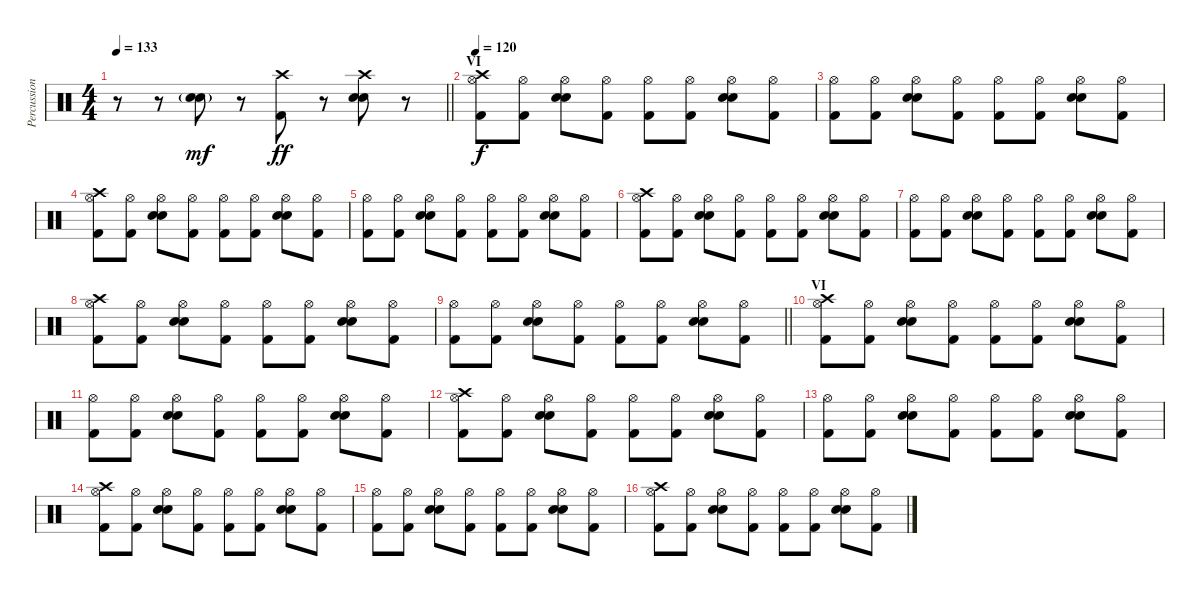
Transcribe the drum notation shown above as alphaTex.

\track ("Percussion" "Percussion") {instrument percussion}
\staff {score}
\articulation defaults
\ts (4 4)
\tempo 133
\clef neutral
\barLineRight lightlight
\ks c
r.8{dy ff} r.8 ("Electric Snare (hit)" "Snare (hit) 2"{g}).8{dy mf} r.8 ("Crash high (hit)" "Kick (hit) 2").8{dy ff} r.8 ("Crash high (hit)" "Electric Snare (hit)" "Snare (hit) 2").8 r.8 |
\section ("" "VI")
\tempo 120
("Crash high (hit)" "Kick (hit) 2" "Hi-Hat (open)").8{dy f} ("Kick (hit) 2" "Hi-Hat (open)").8 ("Electric Snare (hit)" "Snare (hit) 2" "Hi-Hat (open)").8 ("Kick (hit) 2" "Hi-Hat (open)").8 ("Kick (hit) 2" "Hi-Hat (open)").8 ("Kick (hit) 2" "Hi-Hat (open)").8 ("Electric Snare (hit)" "Snare (hit) 2" "Hi-Hat (open)").8 ("Kick (hit) 2" "Hi-Hat (open)").8 |
("Kick (hit) 2" "Hi-Hat (open)").8 ("Kick (hit) 2" "Hi-Hat (open)").8 ("Electric Snare (hit)" "Snare (hit) 2" "Hi-Hat (open)").8 ("Kick (hit) 2" "Hi-Hat (open)").8 ("Kick (hit) 2" "Hi-Hat (open)").8 ("Kick (hit) 2" "Hi-Hat (open)").8 ("Electric Snare (hit)" "Snare (hit) 2" "Hi-Hat (open)").8 ("Kick (hit) 2" "Hi-Hat (open)").8 |
("Crash high (hit)" "Kick (hit) 2" "Hi-Hat (open)").8 ("Kick (hit) 2" "Hi-Hat (open)").8 ("Electric Snare (hit)" "Snare (hit) 2" "Hi-Hat (open)").8 ("Kick (hit) 2" "Hi-Hat (open)").8 ("Kick (hit) 2" "Hi-Hat (open)").8 ("Kick (hit) 2" "Hi-Hat (open)").8 ("Electric Snare (hit)" "Snare (hit) 2" "Hi-Hat (open)").8 ("Kick (hit) 2" "Hi-Hat (open)").8 |
("Kick (hit) 2" "Hi-Hat (open)").8 ("Kick (hit) 2" "Hi-Hat (open)").8 ("Electric Snare (hit)" "Snare (hit) 2" "Hi-Hat (open)").8 ("Kick (hit) 2" "Hi-Hat (open)").8 ("Kick (hit) 2" "Hi-Hat (open)").8 ("Kick (hit) 2" "Hi-Hat (open)").8 ("Electric Snare (hit)" "Snare (hit) 2" "Hi-Hat (open)").8 ("Kick (hit) 2" "Hi-Hat (open)").8 |
("Crash high (hit)" "Kick (hit) 2" "Hi-Hat (open)").8 ("Kick (hit) 2" "Hi-Hat (open)").8 ("Electric Snare (hit)" "Snare (hit) 2" "Hi-Hat (open)").8 ("Kick (hit) 2" "Hi-Hat (open)").8 ("Kick (hit) 2" "Hi-Hat (open)").8 ("Kick (hit) 2" "Hi-Hat (open)").8 ("Electric Snare (hit)" "Snare (hit) 2" "Hi-Hat (open)").8 ("Kick (hit) 2" "Hi-Hat (open)").8 |
("Kick (hit) 2" "Hi-Hat (open)").8 ("Kick (hit) 2" "Hi-Hat (open)").8 ("Electric Snare (hit)" "Snare (hit) 2" "Hi-Hat (open)").8 ("Kick (hit) 2" "Hi-Hat (open)").8 ("Kick (hit) 2" "Hi-Hat (open)").8 ("Kick (hit) 2" "Hi-Hat (open)").8 ("Electric Snare (hit)" "Snare (hit) 2" "Hi-Hat (open)").8 ("Kick (hit) 2" "Hi-Hat (open)").8 |
("Crash high (hit)" "Kick (hit) 2" "Hi-Hat (open)").8 ("Kick (hit) 2" "Hi-Hat (open)").8 ("Electric Snare (hit)" "Snare (hit) 2" "Hi-Hat (open)").8 ("Kick (hit) 2" "Hi-Hat (open)").8 ("Kick (hit) 2" "Hi-Hat (open)").8 ("Kick (hit) 2" "Hi-Hat (open)").8 ("Electric Snare (hit)" "Snare (hit) 2" "Hi-Hat (open)").8 ("Kick (hit) 2" "Hi-Hat (open)").8 |
\barLineRight lightlight
("Kick (hit) 2" "Hi-Hat (open)").8 ("Kick (hit) 2" "Hi-Hat (open)").8 ("Electric Snare (hit)" "Snare (hit) 2" "Hi-Hat (open)").8 ("Kick (hit) 2" "Hi-Hat (open)").8 ("Kick (hit) 2" "Hi-Hat (open)").8 ("Kick (hit) 2" "Hi-Hat (open)").8 ("Electric Snare (hit)" "Snare (hit) 2" "Hi-Hat (open)").8 ("Kick (hit) 2" "Hi-Hat (open)").8 |
\section ("" "VI")
("Crash high (hit)" "Kick (hit) 2" "Hi-Hat (open)").8 ("Kick (hit) 2" "Hi-Hat (open)").8 ("Electric Snare (hit)" "Snare (hit) 2" "Hi-Hat (open)").8 ("Kick (hit) 2" "Hi-Hat (open)").8 ("Kick (hit) 2" "Hi-Hat (open)").8 ("Kick (hit) 2" "Hi-Hat (open)").8 ("Electric Snare (hit)" "Snare (hit) 2" "Hi-Hat (open)").8 ("Kick (hit) 2" "Hi-Hat (open)").8 |
("Kick (hit) 2" "Hi-Hat (open)").8 ("Kick (hit) 2" "Hi-Hat (open)").8 ("Electric Snare (hit)" "Snare (hit) 2" "Hi-Hat (open)").8 ("Kick (hit) 2" "Hi-Hat (open)").8 ("Kick (hit) 2" "Hi-Hat (open)").8 ("Kick (hit) 2" "Hi-Hat (open)").8 ("Electric Snare (hit)" "Snare (hit) 2" "Hi-Hat (open)").8 ("Kick (hit) 2" "Hi-Hat (open)").8 |
("Crash high (hit)" "Kick (hit) 2" "Hi-Hat (open)").8 ("Kick (hit) 2" "Hi-Hat (open)").8 ("Electric Snare (hit)" "Snare (hit) 2" "Hi-Hat (open)").8 ("Kick (hit) 2" "Hi-Hat (open)").8 ("Kick (hit) 2" "Hi-Hat (open)").8 ("Kick (hit) 2" "Hi-Hat (open)").8 ("Electric Snare (hit)" "Snare (hit) 2" "Hi-Hat (open)").8 ("Kick (hit) 2" "Hi-Hat (open)").8 |
("Kick (hit) 2" "Hi-Hat (open)").8 ("Kick (hit) 2" "Hi-Hat (open)").8 ("Electric Snare (hit)" "Snare (hit) 2" "Hi-Hat (open)").8 ("Kick (hit) 2" "Hi-Hat (open)").8 ("Kick (hit) 2" "Hi-Hat (open)").8 ("Kick (hit) 2" "Hi-Hat (open)").8 ("Electric Snare (hit)" "Snare (hit) 2" "Hi-Hat (open)").8 ("Kick (hit) 2" "Hi-Hat (open)").8 |
("Crash high (hit)" "Kick (hit) 2" "Hi-Hat (open)").8 ("Kick (hit) 2" "Hi-Hat (open)").8 ("Electric Snare (hit)" "Snare (hit) 2" "Hi-Hat (open)").8 ("Kick (hit) 2" "Hi-Hat (open)").8 ("Kick (hit) 2" "Hi-Hat (open)").8 ("Kick (hit) 2" "Hi-Hat (open)").8 ("Electric Snare (hit)" "Snare (hit) 2" "Hi-Hat (open)").8 ("Kick (hit) 2" "Hi-Hat (open)").8 |
("Kick (hit) 2" "Hi-Hat (open)").8 ("Kick (hit) 2" "Hi-Hat (open)").8 ("Electric Snare (hit)" "Snare (hit) 2" "Hi-Hat (open)").8 ("Kick (hit) 2" "Hi-Hat (open)").8 ("Kick (hit) 2" "Hi-Hat (open)").8 ("Kick (hit) 2" "Hi-Hat (open)").8 ("Electric Snare (hit)" "Snare (hit) 2" "Hi-Hat (open)").8 ("Kick (hit) 2" "Hi-Hat (open)").8 |
("Crash high (hit)" "Kick (hit) 2" "Hi-Hat (open)").8 ("Kick (hit) 2" "Hi-Hat (open)").8 ("Electric Snare (hit)" "Snare (hit) 2" "Hi-Hat (open)").8 ("Kick (hit) 2" "Hi-Hat (open)").8 ("Kick (hit) 2" "Hi-Hat (open)").8 ("Kick (hit) 2" "Hi-Hat (open)").8 ("Electric Snare (hit)" "Snare (hit) 2" "Hi-Hat (open)").8 ("Kick (hit) 2" "Hi-Hat (open)").8
